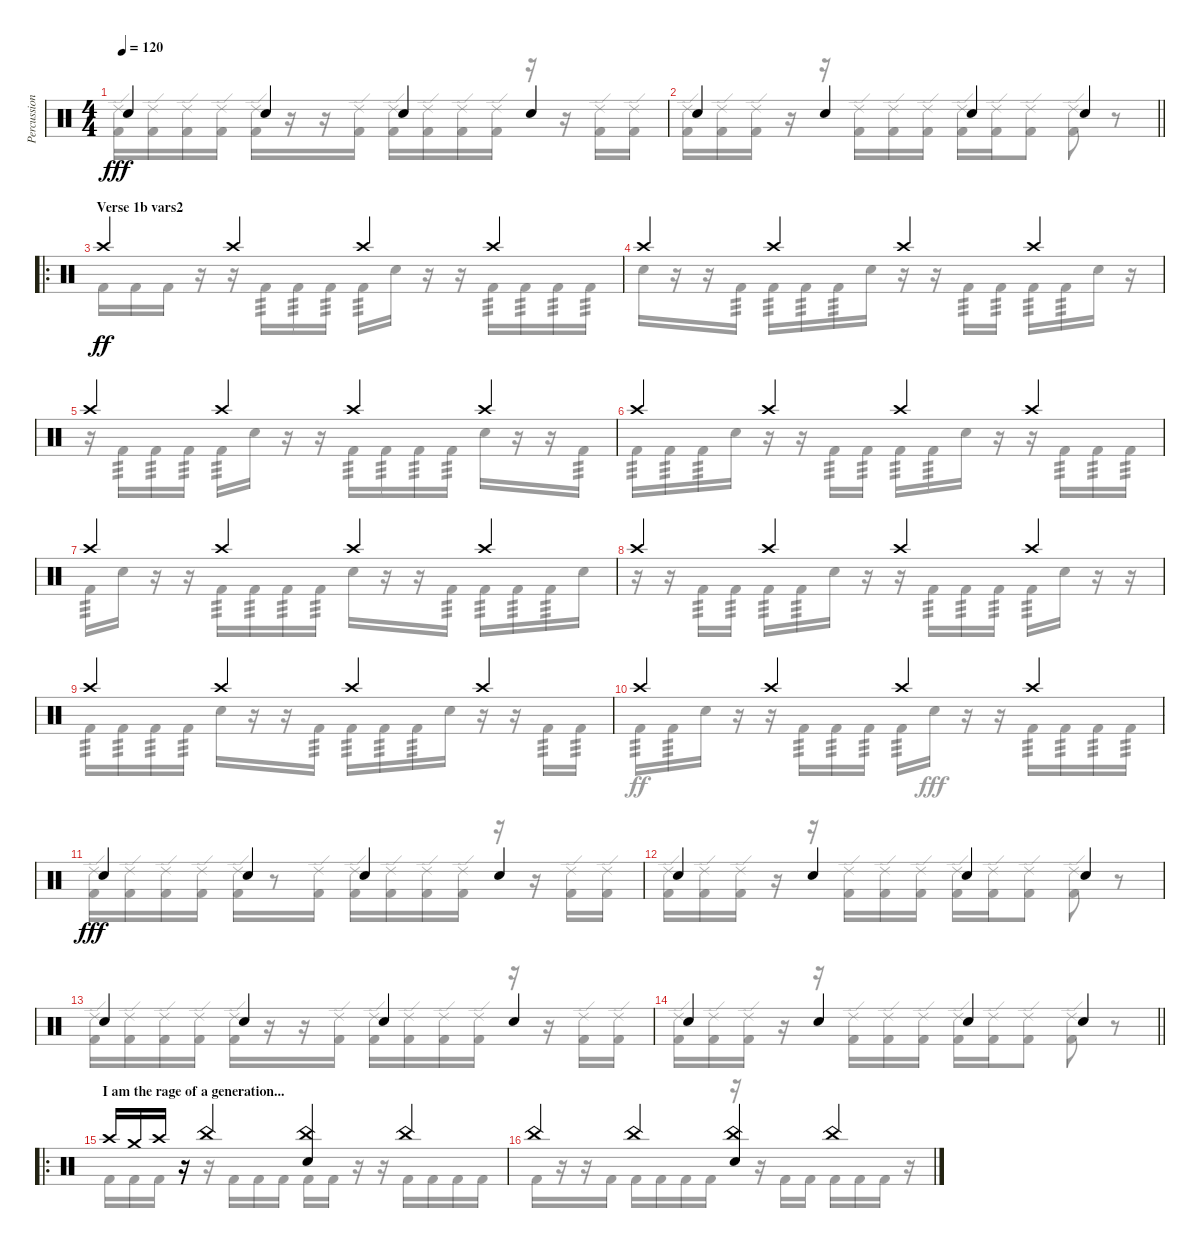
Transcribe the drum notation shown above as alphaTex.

\track ("Percussion" "Percussion") {instrument percussion}
\staff {score}
\articulation defaults
\voice
\ts (4 4)
\tempo 120
\clef neutral
\ks c "Snare (hit) 2".4{dy fff} "Snare (hit) 2".4 "Snare (hit) 2".4 "Snare (hit) 2".4
|
\barLineRight lightlight "Snare (hit) 2".4 "Snare (hit) 2".4 "Snare (hit) 2".4 "Snare (hit) 2".4
|
\ro
\section ("" "Verse 1b vars2")
"Crash high (hit)".4{dy ff} "Crash high (hit)".4 "Crash high (hit)".4 "Crash high (hit)".4 |
"Crash high (hit)".4 "Crash high (hit)".4 "Crash high (hit)".4 "Crash high (hit)".4 |
"Crash high (hit)".4 "Crash high (hit)".4 "Crash high (hit)".4 "Crash high (hit)".4 |
"Crash high (hit)".4 "Crash high (hit)".4 "Crash high (hit)".4 "Crash high (hit)".4 |
"Crash high (hit)".4 "Crash high (hit)".4 "Crash high (hit)".4 "Crash high (hit)".4 |
"Crash high (hit)".4 "Crash high (hit)".4 "Crash high (hit)".4 "Crash high (hit)".4 |
"Crash high (hit)".4 "Crash high (hit)".4 "Crash high (hit)".4 "Crash high (hit)".4 |
"Crash high (hit)".4 "Crash high (hit)".4 "Crash high (hit)".4 "Crash high (hit)".4 |
"Snare (hit) 2".4{dy fff} "Snare (hit) 2".4 "Snare (hit) 2".4 "Snare (hit) 2".4 |
"Snare (hit) 2".4 "Snare (hit) 2".4 "Snare (hit) 2".4 "Snare (hit) 2".4 |
"Snare (hit) 2".4 "Snare (hit) 2".4 "Snare (hit) 2".4 "Snare (hit) 2".4 |
\barLineRight lightlight "Snare (hit) 2".4 "Snare (hit) 2".4 "Snare (hit) 2".4 "Snare (hit) 2".4
|
\ro
\section ("" "I am the rage of a generation...")
"Crash high (hit)".16 "Crash medium (hit)".16 "Crash high (hit)".16 r.16 "China (hit)".4 ("China (hit)" "Electric Snare (hit)").4 "China (hit)".4 |
"China (hit)".4 "China (hit)".4 ("China (hit)" "Electric Snare (hit)").4 "China (hit)".4
\voice
\clef neutral
\ottava regular
\simile none
\ks c
("Ride (edge) 2" "Kick (hit) 2").16{dy fff} ("Ride (edge) 2" "Kick (hit) 2").16 ("Ride (edge) 2" "Kick (hit) 2").16 ("Ride (edge) 2" "Kick (hit) 2").16 ("Ride (edge) 2" "Kick (hit) 2").16 r.16 r.16 ("Ride (edge) 2" "Kick (hit) 2").16 ("Ride (edge) 2" "Kick (hit) 2").16 ("Ride (edge) 2" "Kick (hit) 2").16 ("Ride (edge) 2" "Kick (hit) 2").16 ("Ride (edge) 2" "Kick (hit) 2").16 r.16 r.16 ("Ride (edge) 2" "Kick (hit) 2").16 ("Ride (edge) 2" "Kick (hit) 2").16 |
\barLineRight lightlight
("Ride (edge) 2" "Kick (hit) 2").16 ("Ride (edge) 2" "Kick (hit) 2").16 ("Ride (edge) 2" "Kick (hit) 2").16 r.16 r.16 ("Ride (edge) 2" "Kick (hit) 2").16 ("Ride (edge) 2" "Kick (hit) 2").16 ("Ride (edge) 2" "Kick (hit) 2").16 ("Ride (edge) 2" "Kick (hit) 2").16 ("Ride (edge) 2" "Kick (hit) 2").16 ("Ride (edge) 2" "Kick (hit) 2").8 ("Ride (edge) 2" "Kick (hit) 2").8 r.8 |
"Kick (hit) 2".16 "Kick (hit) 2".16 "Kick (hit) 2".16 r.16 r.16 "Kick (hit) 2".16{tp 3} "Kick (hit) 2".16{tp 3} "Kick (hit) 2".16{tp 3} "Kick (hit) 2".16{tp 3} "Snare (hit) 2".16 r.16 r.16 "Kick (hit) 2".16{tp 3} "Kick (hit) 2".16{tp 3} "Kick (hit) 2".16{tp 3} "Kick (hit) 2".16{tp 3} |
"Snare (hit) 2".16 r.16 r.16 "Kick (hit) 2".16{tp 3} "Kick (hit) 2".16{tp 3} "Kick (hit) 2".16{tp 3} "Kick (hit) 2".16{tp 3} "Snare (hit) 2".16 r.16 r.16 "Kick (hit) 2".16{tp 3} "Kick (hit) 2".16{tp 3} "Kick (hit) 2".16{tp 3} "Kick (hit) 2".16{tp 3} "Snare (hit) 2".16 r.16 |
r.16 "Kick (hit) 2".16{tp 3} "Kick (hit) 2".16{tp 3} "Kick (hit) 2".16{tp 3} "Kick (hit) 2".16{tp 3} "Snare (hit) 2".16 r.16 r.16 "Kick (hit) 2".16{tp 3} "Kick (hit) 2".16{tp 3} "Kick (hit) 2".16{tp 3} "Kick (hit) 2".16{tp 3} "Snare (hit) 2".16 r.16 r.16 "Kick (hit) 2".16{tp 3} |
"Kick (hit) 2".16{tp 3} "Kick (hit) 2".16{tp 3} "Kick (hit) 2".16{tp 3} "Snare (hit) 2".16 r.16 r.16 "Kick (hit) 2".16{tp 3} "Kick (hit) 2".16{tp 3} "Kick (hit) 2".16{tp 3} "Kick (hit) 2".16{tp 3} "Snare (hit) 2".16 r.16 r.16 "Kick (hit) 2".16{tp 3} "Kick (hit) 2".16{tp 3} "Kick (hit) 2".16{tp 3} |
"Kick (hit) 2".16{tp 3} "Snare (hit) 2".16 r.16 r.16 "Kick (hit) 2".16{tp 3} "Kick (hit) 2".16{tp 3} "Kick (hit) 2".16{tp 3} "Kick (hit) 2".16{tp 3} "Snare (hit) 2".16 r.16 r.16 "Kick (hit) 2".16{tp 3} "Kick (hit) 2".16{tp 3} "Kick (hit) 2".16{tp 3} "Kick (hit) 2".16{tp 3} "Snare (hit) 2".16 |
r.16 r.16 "Kick (hit) 2".16{tp 3} "Kick (hit) 2".16{tp 3} "Kick (hit) 2".16{tp 3} "Kick (hit) 2".16{tp 3} "Snare (hit) 2".16 r.16 r.16 "Kick (hit) 2".16{tp 3} "Kick (hit) 2".16{tp 3} "Kick (hit) 2".16{tp 3} "Kick (hit) 2".16{tp 3} "Snare (hit) 2".16 r.16 r.16 |
"Kick (hit) 2".16{tp 3} "Kick (hit) 2".16{tp 3} "Kick (hit) 2".16{tp 3} "Kick (hit) 2".16{tp 3} "Snare (hit) 2".16 r.16 r.16 "Kick (hit) 2".16{tp 3} "Kick (hit) 2".16{tp 3} "Kick (hit) 2".16{tp 3} "Kick (hit) 2".16{tp 3} "Snare (hit) 2".16 r.16 r.16 "Kick (hit) 2".16{tp 3} "Kick (hit) 2".16{tp 3} |
"Kick (hit) 2".16{tp 3 dy ff} "Kick (hit) 2".16{tp 3} "Snare (hit) 2".16 r.16 r.16 "Kick (hit) 2".16{tp 3} "Kick (hit) 2".16{tp 3} "Kick (hit) 2".16{tp 3} "Kick (hit) 2".16{tp 3} "Snare (hit) 2".16{dy fff} r.16 r.16 "Kick (hit) 2".16{tp 3} "Kick (hit) 2".16{tp 3} "Kick (hit) 2".16{tp 3} "Kick (hit) 2".16{tp 3} |
("Ride (edge) 2" "Kick (hit) 2").16 ("Ride (edge) 2" "Kick (hit) 2").16 ("Ride (edge) 2" "Kick (hit) 2").16 ("Ride (edge) 2" "Kick (hit) 2").16 ("Ride (edge) 2" "Kick (hit) 2").16 r.8 ("Ride (edge) 2" "Kick (hit) 2").16 ("Ride (edge) 2" "Kick (hit) 2").16 ("Ride (edge) 2" "Kick (hit) 2").16 ("Ride (edge) 2" "Kick (hit) 2").16 ("Ride (edge) 2" "Kick (hit) 2").16 r.16 r.16 ("Ride (edge) 2" "Kick (hit) 2").16 ("Ride (edge) 2" "Kick (hit) 2").16 |
("Ride (edge) 2" "Kick (hit) 2").16 ("Ride (edge) 2" "Kick (hit) 2").16 ("Ride (edge) 2" "Kick (hit) 2").16 r.16 r.16 ("Ride (edge) 2" "Kick (hit) 2").16 ("Ride (edge) 2" "Kick (hit) 2").16 ("Ride (edge) 2" "Kick (hit) 2").16 ("Ride (edge) 2" "Kick (hit) 2").16 ("Ride (edge) 2" "Kick (hit) 2").16 ("Ride (edge) 2" "Kick (hit) 2").8 ("Ride (edge) 2" "Kick (hit) 2").8 r.8 |
("Ride (edge) 2" "Kick (hit) 2").16 ("Ride (edge) 2" "Kick (hit) 2").16 ("Ride (edge) 2" "Kick (hit) 2").16 ("Ride (edge) 2" "Kick (hit) 2").16 ("Ride (edge) 2" "Kick (hit) 2").16 r.16 r.16 ("Ride (edge) 2" "Kick (hit) 2").16 ("Ride (edge) 2" "Kick (hit) 2").16 ("Ride (edge) 2" "Kick (hit) 2").16 ("Ride (edge) 2" "Kick (hit) 2").16 ("Ride (edge) 2" "Kick (hit) 2").16 r.16 r.16 ("Ride (edge) 2" "Kick (hit) 2").16 ("Ride (edge) 2" "Kick (hit) 2").16 |
\barLineRight lightlight
("Ride (edge) 2" "Kick (hit) 2").16 ("Ride (edge) 2" "Kick (hit) 2").16 ("Ride (edge) 2" "Kick (hit) 2").16 r.16 r.16 ("Ride (edge) 2" "Kick (hit) 2").16 ("Ride (edge) 2" "Kick (hit) 2").16 ("Ride (edge) 2" "Kick (hit) 2").16 ("Ride (edge) 2" "Kick (hit) 2").16 ("Ride (edge) 2" "Kick (hit) 2").16 ("Ride (edge) 2" "Kick (hit) 2").8 ("Ride (edge) 2" "Kick (hit) 2").8 r.8 |
"Kick (hit) 2".16 "Kick (hit) 2".16 "Kick (hit) 2".16 r.16 r.16 "Kick (hit) 2".16 "Kick (hit) 2".16 "Kick (hit) 2".16 "Kick (hit) 2".16 "Kick (hit) 2".16 r.16 r.16 "Kick (hit) 2".16 "Kick (hit) 2".16 "Kick (hit) 2".16 "Kick (hit) 2".16 |
"Kick (hit) 2".16 r.16 r.16 "Kick (hit) 2".16 "Kick (hit) 2".16 "Kick (hit) 2".16 "Kick (hit) 2".16 "Kick (hit) 2".16 r.16 r.16 "Kick (hit) 2".16 "Kick (hit) 2".16 "Kick (hit) 2".16 "Kick (hit) 2".16 "Kick (hit) 2".16 r.16
